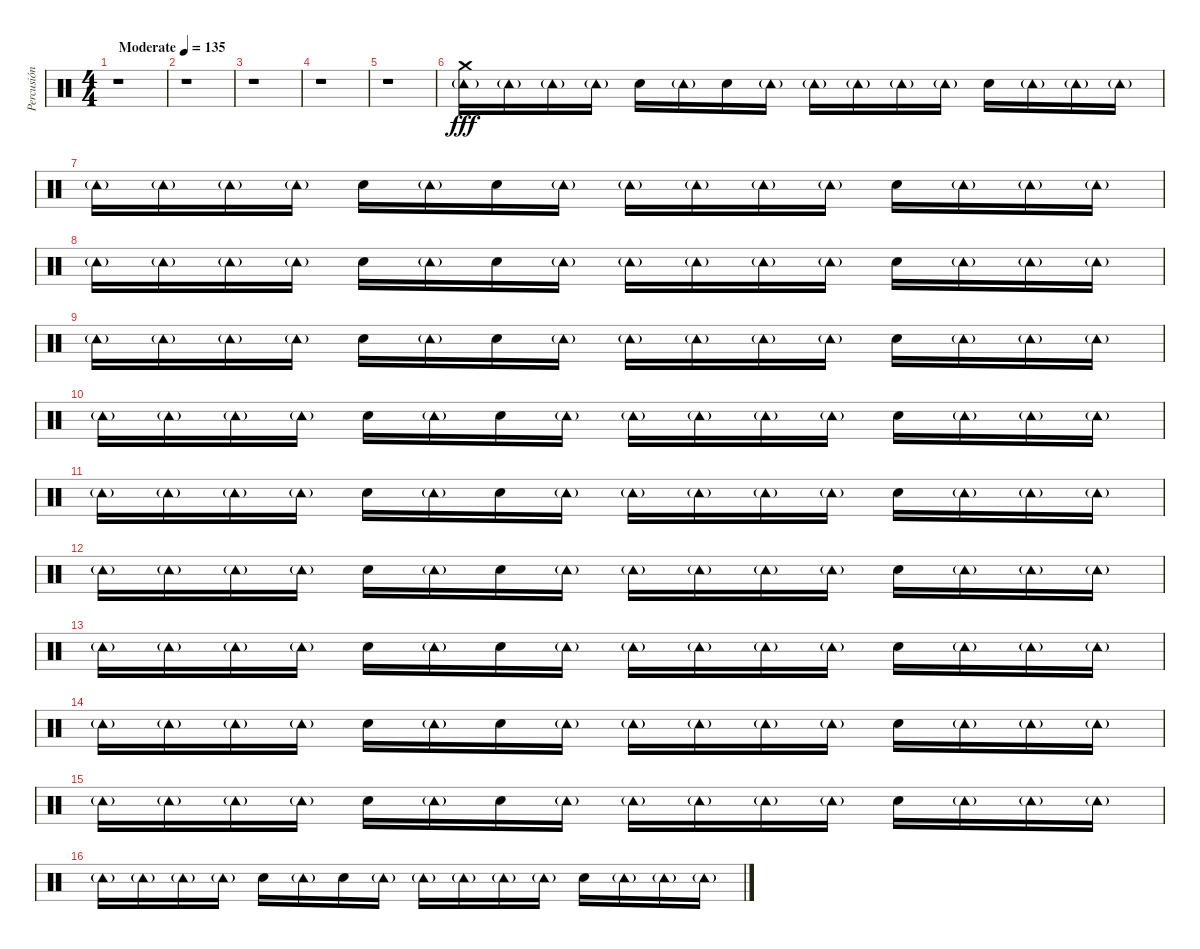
\track ("Percusión" "Percusión") {instrument percussion}
\staff {score}
\articulation defaults
\ts (4 4)
\tempo (135 "Moderate")
\clef neutral
\ks c
r.1{dy fff balance 16} |
r.1 |
r.1 |
r.1 |
r.1 |
("Crash medium (hit)" "Tambourine (hit)"{g}).16 "Tambourine (hit)"{g}.16 "Tambourine (hit)"{g}.16 "Tambourine (hit)"{g}.16 "Hand Clap (hit)".16 "Tambourine (hit)"{g}.16 "Hand Clap (hit)".16 "Tambourine (hit)"{g}.16 "Tambourine (hit)"{g}.16 "Tambourine (hit)"{g}.16 "Tambourine (hit)"{g}.16 "Tambourine (hit)"{g}.16 "Hand Clap (hit)".16 "Tambourine (hit)"{g}.16 "Tambourine (hit)"{g}.16 "Tambourine (hit)"{g}.16 |
"Tambourine (hit)"{g}.16 "Tambourine (hit)"{g}.16 "Tambourine (hit)"{g}.16 "Tambourine (hit)"{g}.16 "Hand Clap (hit)".16 "Tambourine (hit)"{g}.16 "Hand Clap (hit)".16 "Tambourine (hit)"{g}.16 "Tambourine (hit)"{g}.16 "Tambourine (hit)"{g}.16 "Tambourine (hit)"{g}.16 "Tambourine (hit)"{g}.16 "Hand Clap (hit)".16 "Tambourine (hit)"{g}.16 "Tambourine (hit)"{g}.16 "Tambourine (hit)"{g}.16 |
"Tambourine (hit)"{g}.16 "Tambourine (hit)"{g}.16 "Tambourine (hit)"{g}.16 "Tambourine (hit)"{g}.16 "Hand Clap (hit)".16 "Tambourine (hit)"{g}.16 "Hand Clap (hit)".16 "Tambourine (hit)"{g}.16 "Tambourine (hit)"{g}.16 "Tambourine (hit)"{g}.16 "Tambourine (hit)"{g}.16 "Tambourine (hit)"{g}.16 "Hand Clap (hit)".16 "Tambourine (hit)"{g}.16 "Tambourine (hit)"{g}.16 "Tambourine (hit)"{g}.16 |
"Tambourine (hit)"{g}.16 "Tambourine (hit)"{g}.16 "Tambourine (hit)"{g}.16 "Tambourine (hit)"{g}.16 "Hand Clap (hit)".16 "Tambourine (hit)"{g}.16 "Hand Clap (hit)".16 "Tambourine (hit)"{g}.16 "Tambourine (hit)"{g}.16 "Tambourine (hit)"{g}.16 "Tambourine (hit)"{g}.16 "Tambourine (hit)"{g}.16 "Hand Clap (hit)".16 "Tambourine (hit)"{g}.16 "Tambourine (hit)"{g}.16 "Tambourine (hit)"{g}.16 |
"Tambourine (hit)"{g}.16 "Tambourine (hit)"{g}.16 "Tambourine (hit)"{g}.16 "Tambourine (hit)"{g}.16 "Hand Clap (hit)".16 "Tambourine (hit)"{g}.16 "Hand Clap (hit)".16 "Tambourine (hit)"{g}.16 "Tambourine (hit)"{g}.16 "Tambourine (hit)"{g}.16 "Tambourine (hit)"{g}.16 "Tambourine (hit)"{g}.16 "Hand Clap (hit)".16 "Tambourine (hit)"{g}.16 "Tambourine (hit)"{g}.16 "Tambourine (hit)"{g}.16 |
"Tambourine (hit)"{g}.16 "Tambourine (hit)"{g}.16 "Tambourine (hit)"{g}.16 "Tambourine (hit)"{g}.16 "Hand Clap (hit)".16 "Tambourine (hit)"{g}.16 "Hand Clap (hit)".16 "Tambourine (hit)"{g}.16 "Tambourine (hit)"{g}.16 "Tambourine (hit)"{g}.16 "Tambourine (hit)"{g}.16 "Tambourine (hit)"{g}.16 "Hand Clap (hit)".16 "Tambourine (hit)"{g}.16 "Tambourine (hit)"{g}.16 "Tambourine (hit)"{g}.16 |
"Tambourine (hit)"{g}.16 "Tambourine (hit)"{g}.16 "Tambourine (hit)"{g}.16 "Tambourine (hit)"{g}.16 "Hand Clap (hit)".16 "Tambourine (hit)"{g}.16 "Hand Clap (hit)".16 "Tambourine (hit)"{g}.16 "Tambourine (hit)"{g}.16 "Tambourine (hit)"{g}.16 "Tambourine (hit)"{g}.16 "Tambourine (hit)"{g}.16 "Hand Clap (hit)".16 "Tambourine (hit)"{g}.16 "Tambourine (hit)"{g}.16 "Tambourine (hit)"{g}.16 |
"Tambourine (hit)"{g}.16 "Tambourine (hit)"{g}.16 "Tambourine (hit)"{g}.16 "Tambourine (hit)"{g}.16 "Hand Clap (hit)".16 "Tambourine (hit)"{g}.16 "Hand Clap (hit)".16 "Tambourine (hit)"{g}.16 "Tambourine (hit)"{g}.16 "Tambourine (hit)"{g}.16 "Tambourine (hit)"{g}.16 "Tambourine (hit)"{g}.16 "Hand Clap (hit)".16 "Tambourine (hit)"{g}.16 "Tambourine (hit)"{g}.16 "Tambourine (hit)"{g}.16 |
"Tambourine (hit)"{g}.16 "Tambourine (hit)"{g}.16 "Tambourine (hit)"{g}.16 "Tambourine (hit)"{g}.16 "Hand Clap (hit)".16 "Tambourine (hit)"{g}.16 "Hand Clap (hit)".16 "Tambourine (hit)"{g}.16 "Tambourine (hit)"{g}.16 "Tambourine (hit)"{g}.16 "Tambourine (hit)"{g}.16 "Tambourine (hit)"{g}.16 "Hand Clap (hit)".16 "Tambourine (hit)"{g}.16 "Tambourine (hit)"{g}.16 "Tambourine (hit)"{g}.16 |
"Tambourine (hit)"{g}.16 "Tambourine (hit)"{g}.16 "Tambourine (hit)"{g}.16 "Tambourine (hit)"{g}.16 "Hand Clap (hit)".16 "Tambourine (hit)"{g}.16 "Hand Clap (hit)".16 "Tambourine (hit)"{g}.16 "Tambourine (hit)"{g}.16 "Tambourine (hit)"{g}.16 "Tambourine (hit)"{g}.16 "Tambourine (hit)"{g}.16 "Hand Clap (hit)".16 "Tambourine (hit)"{g}.16 "Tambourine (hit)"{g}.16 "Tambourine (hit)"{g}.16 |
"Tambourine (hit)"{g}.16 "Tambourine (hit)"{g}.16 "Tambourine (hit)"{g}.16 "Tambourine (hit)"{g}.16 "Hand Clap (hit)".16 "Tambourine (hit)"{g}.16 "Hand Clap (hit)".16 "Tambourine (hit)"{g}.16 "Tambourine (hit)"{g}.16 "Tambourine (hit)"{g}.16 "Tambourine (hit)"{g}.16 "Tambourine (hit)"{g}.16 "Hand Clap (hit)".16 "Tambourine (hit)"{g}.16 "Tambourine (hit)"{g}.16 "Tambourine (hit)"{g}.16
